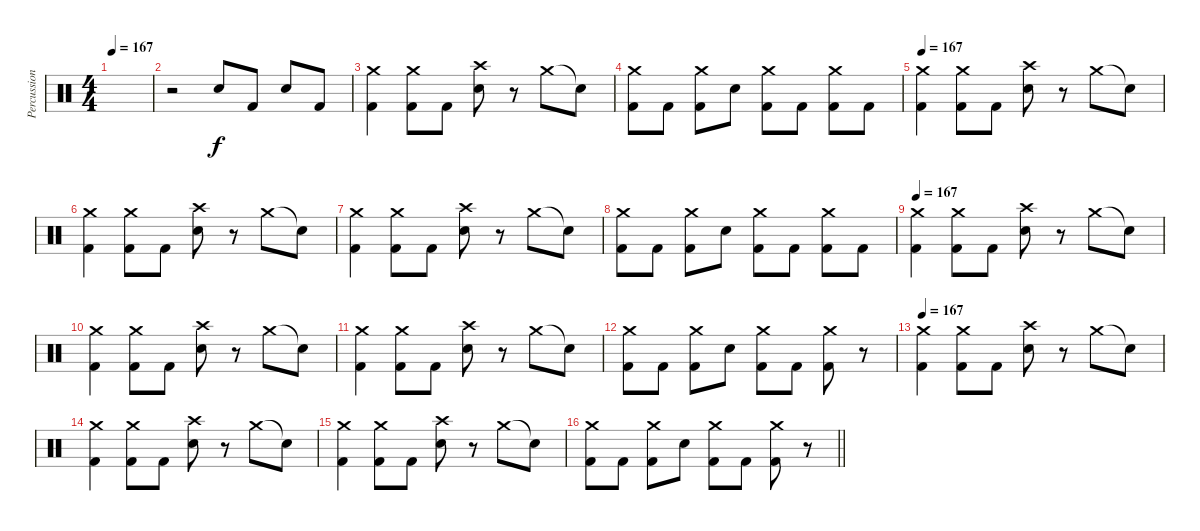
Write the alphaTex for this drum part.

\track ("Percussion" "Percussion") {instrument percussion}
\staff {score}
\articulation defaults
\ts (4 4)
\section ("" "")
\tempo 167
\clef neutral
\ks c
|
r.2 "Electric Snare (hit)".8 "Kick (hit) 2".8 "Electric Snare (hit)".8 "Kick (hit) 2".8 |
("Crash medium (hit)" "Kick (hit) 2").4 ("Crash medium (hit)" "Kick (hit) 2").8 "Kick (hit) 2".8 ("Crash high (hit)" "Electric Snare (hit)").8 r.8 "Crash medium (hit)".8 "Snare (hit)"{t}.8 |
("Crash medium (hit)" "Kick (hit) 2").8 "Kick (hit) 2".8 ("Crash medium (hit)" "Kick (hit) 2").8 "Electric Snare (hit)".8 ("Crash medium (hit)" "Kick (hit) 2").8 "Kick (hit) 2".8 ("Crash medium (hit)" "Kick (hit) 2").8 "Kick (hit) 2".8 |
\tempo 167
("Crash medium (hit)" "Kick (hit) 2").4 ("Crash medium (hit)" "Kick (hit) 2").8 "Kick (hit) 2".8 ("Crash high (hit)" "Electric Snare (hit)").8 r.8 "Crash medium (hit)".8 "Snare (hit)"{t}.8 |
("Crash medium (hit)" "Kick (hit) 2").4 ("Crash medium (hit)" "Kick (hit) 2").8 "Kick (hit) 2".8 ("Crash high (hit)" "Electric Snare (hit)").8 r.8 "Crash medium (hit)".8 "Snare (hit)"{t}.8 |
("Crash medium (hit)" "Kick (hit) 2").4 ("Crash medium (hit)" "Kick (hit) 2").8 "Kick (hit) 2".8 ("Crash high (hit)" "Electric Snare (hit)").8 r.8 "Crash medium (hit)".8 "Snare (hit)"{t}.8 |
("Crash medium (hit)" "Kick (hit) 2").8 "Kick (hit) 2".8 ("Crash medium (hit)" "Kick (hit) 2").8 "Electric Snare (hit)".8 ("Crash medium (hit)" "Kick (hit) 2").8 "Kick (hit) 2".8 ("Crash medium (hit)" "Kick (hit) 2").8 "Kick (hit) 2".8 |
\tempo 167
("Crash medium (hit)" "Kick (hit) 2").4 ("Crash medium (hit)" "Kick (hit) 2").8 "Kick (hit) 2".8 ("Crash high (hit)" "Electric Snare (hit)").8 r.8 "Crash medium (hit)".8 "Snare (hit)"{t}.8 |
("Crash medium (hit)" "Kick (hit) 2").4 ("Crash medium (hit)" "Kick (hit) 2").8 "Kick (hit) 2".8 ("Crash high (hit)" "Electric Snare (hit)").8 r.8 "Crash medium (hit)".8 "Snare (hit)"{t}.8 |
("Crash medium (hit)" "Kick (hit) 2").4 ("Crash medium (hit)" "Kick (hit) 2").8 "Kick (hit) 2".8 ("Crash high (hit)" "Electric Snare (hit)").8 r.8 "Crash medium (hit)".8 "Snare (hit)"{t}.8 |
("Crash medium (hit)" "Kick (hit) 2").8 "Kick (hit) 2".8 ("Crash medium (hit)" "Kick (hit) 2").8 "Electric Snare (hit)".8 ("Crash medium (hit)" "Kick (hit) 2").8 "Kick (hit) 2".8 ("Crash medium (hit)" "Kick (hit) 2").8 r.8 |
\tempo 167
("Crash medium (hit)" "Kick (hit) 2").4 ("Crash medium (hit)" "Kick (hit) 2").8 "Kick (hit) 2".8 ("Crash high (hit)" "Electric Snare (hit)").8 r.8 "Crash medium (hit)".8 "Snare (hit)"{t}.8 |
("Crash medium (hit)" "Kick (hit) 2").4 ("Crash medium (hit)" "Kick (hit) 2").8 "Kick (hit) 2".8 ("Crash high (hit)" "Electric Snare (hit)").8 r.8 "Crash medium (hit)".8 "Snare (hit)"{t}.8 |
("Crash medium (hit)" "Kick (hit) 2").4 ("Crash medium (hit)" "Kick (hit) 2").8 "Kick (hit) 2".8 ("Crash high (hit)" "Electric Snare (hit)").8 r.8 "Crash medium (hit)".8 "Snare (hit)"{t}.8 |
\barLineRight lightlight
("Crash medium (hit)" "Kick (hit) 2").8 "Kick (hit) 2".8 ("Crash medium (hit)" "Kick (hit) 2").8 "Electric Snare (hit)".8 ("Crash medium (hit)" "Kick (hit) 2").8 "Kick (hit) 2".8 ("Crash medium (hit)" "Kick (hit) 2").8 r.8
